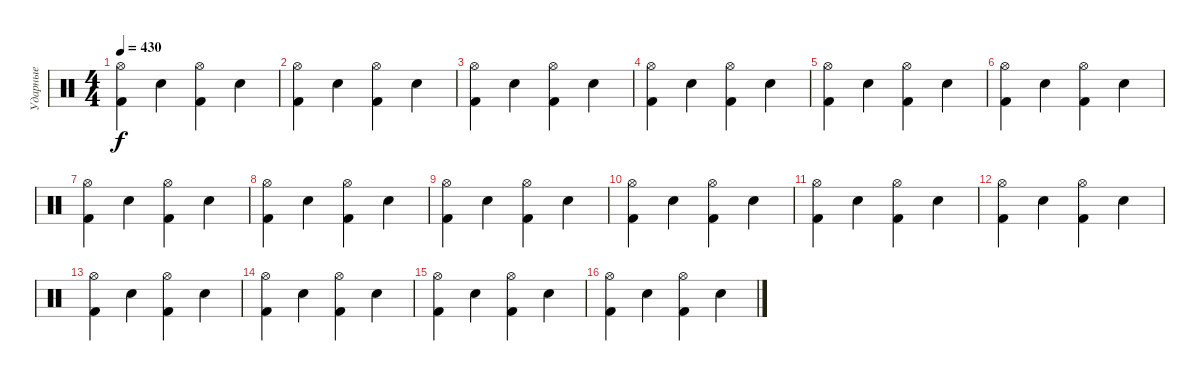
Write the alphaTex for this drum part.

\track ("Ударные" "Ударные") {instrument percussion}
\staff {score}
\articulation defaults
\ts (4 4)
\tempo 430
\clef neutral
\ks c
("Kick (hit) 2" "Hi-Hat (open)").4{dy f} "Electric Snare (hit)".4 ("Kick (hit) 2" "Hi-Hat (open)").4 "Electric Snare (hit)".4 |
("Kick (hit) 2" "Hi-Hat (open)").4 "Electric Snare (hit)".4 ("Kick (hit) 2" "Hi-Hat (open)").4 "Electric Snare (hit)".4 |
("Kick (hit) 2" "Hi-Hat (open)").4 "Electric Snare (hit)".4 ("Kick (hit) 2" "Hi-Hat (open)").4 "Electric Snare (hit)".4 |
("Kick (hit) 2" "Hi-Hat (open)").4 "Electric Snare (hit)".4 ("Kick (hit) 2" "Hi-Hat (open)").4 "Electric Snare (hit)".4 |
("Kick (hit) 2" "Hi-Hat (open)").4 "Electric Snare (hit)".4 ("Kick (hit) 2" "Hi-Hat (open)").4 "Electric Snare (hit)".4 |
("Kick (hit) 2" "Hi-Hat (open)").4 "Electric Snare (hit)".4 ("Kick (hit) 2" "Hi-Hat (open)").4 "Electric Snare (hit)".4 |
("Kick (hit) 2" "Hi-Hat (open)").4 "Electric Snare (hit)".4 ("Kick (hit) 2" "Hi-Hat (open)").4 "Electric Snare (hit)".4 |
("Kick (hit) 2" "Hi-Hat (open)").4 "Electric Snare (hit)".4 ("Kick (hit) 2" "Hi-Hat (open)").4 "Electric Snare (hit)".4 |
("Kick (hit) 2" "Hi-Hat (open)").4 "Electric Snare (hit)".4 ("Kick (hit) 2" "Hi-Hat (open)").4 "Electric Snare (hit)".4 |
("Kick (hit) 2" "Hi-Hat (open)").4 "Electric Snare (hit)".4 ("Kick (hit) 2" "Hi-Hat (open)").4 "Electric Snare (hit)".4 |
("Kick (hit) 2" "Hi-Hat (open)").4 "Electric Snare (hit)".4 ("Kick (hit) 2" "Hi-Hat (open)").4 "Electric Snare (hit)".4 |
("Kick (hit) 2" "Hi-Hat (open)").4 "Electric Snare (hit)".4 ("Kick (hit) 2" "Hi-Hat (open)").4 "Electric Snare (hit)".4 |
("Kick (hit) 2" "Hi-Hat (open)").4 "Electric Snare (hit)".4 ("Kick (hit) 2" "Hi-Hat (open)").4 "Electric Snare (hit)".4 |
("Kick (hit) 2" "Hi-Hat (open)").4 "Electric Snare (hit)".4 ("Kick (hit) 2" "Hi-Hat (open)").4 "Electric Snare (hit)".4 |
("Kick (hit) 2" "Hi-Hat (open)").4 "Electric Snare (hit)".4 ("Kick (hit) 2" "Hi-Hat (open)").4 "Electric Snare (hit)".4 |
("Kick (hit) 2" "Hi-Hat (open)").4 "Electric Snare (hit)".4 ("Kick (hit) 2" "Hi-Hat (open)").4 "Electric Snare (hit)".4
